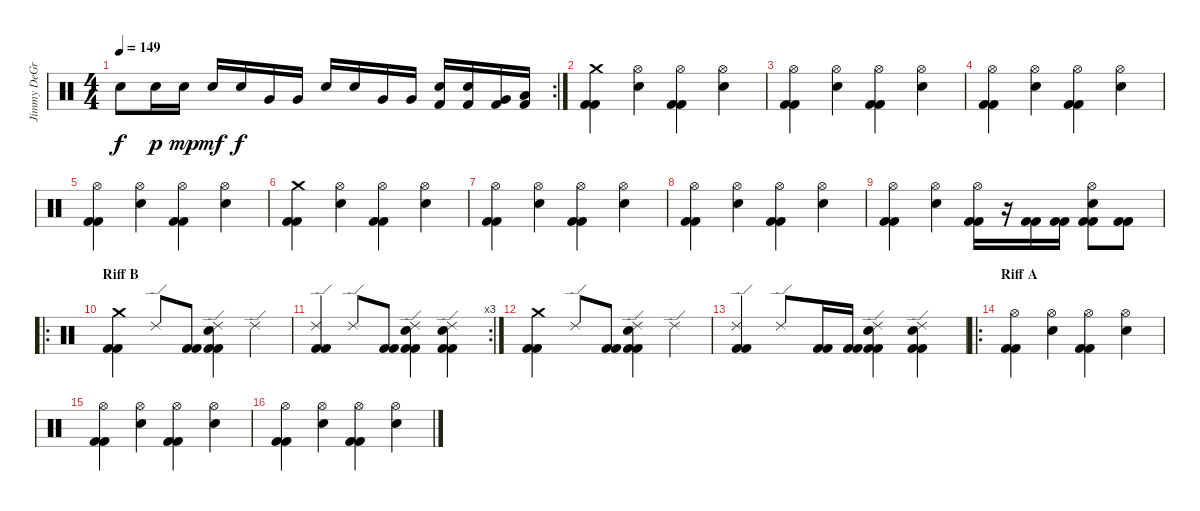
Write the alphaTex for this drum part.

\track ("Jimmy DeGrasso" "Jimmy DeGr") {instrument percussion}
\staff {score}
\articulation defaults
\rc 2
\ts (4 4)
\tempo 149
\clef neutral
\ks c "Snare (hit) 2".8{dy f} "Snare (hit) 2".16{dy p} "Snare (hit) 2".16{dy mp} "Snare (hit) 2".16{dy mf} "Snare (hit) 2".16{dy f} "Very Low Tom (hit)".16 "Very Low Tom (hit)".16 "Snare (hit) 2".16 "Snare (hit) 2".16 "Very Low Tom (hit)".16 "Very Low Tom (hit)".16
("Snare (hit) 2" "Kick (hit) 2").16 ("Snare (hit) 2" "Kick (hit) 2").16 ("Very Low Tom (hit)" "Kick (hit) 2").16 ("Low Floor Tom (hit)" "Kick (hit) 2").16 |
("Crash medium (hit)" "Kick (hit) 2" "Kick (hit) 2").4 ("Hi-Hat (open)" "Snare (hit) 2").4 ("Hi-Hat (open)" "Kick (hit) 2" "Kick (hit) 2").4 ("Hi-Hat (open)" "Snare (hit) 2").4 |
("Hi-Hat (open)" "Kick (hit) 2" "Kick (hit) 2").4 ("Hi-Hat (open)" "Snare (hit) 2").4 ("Hi-Hat (open)" "Kick (hit) 2" "Kick (hit) 2").4 ("Hi-Hat (open)" "Snare (hit) 2").4 |
("Hi-Hat (open)" "Kick (hit) 2" "Kick (hit) 2").4 ("Hi-Hat (open)" "Snare (hit) 2").4 ("Hi-Hat (open)" "Kick (hit) 2" "Kick (hit) 2").4 ("Hi-Hat (open)" "Snare (hit) 2").4 |
("Hi-Hat (open)" "Kick (hit) 2" "Kick (hit) 2").4 ("Hi-Hat (open)" "Snare (hit) 2").4 ("Hi-Hat (open)" "Kick (hit) 2" "Kick (hit) 2").4 ("Hi-Hat (open)" "Snare (hit) 2").4 |
("Crash medium (hit)" "Kick (hit) 2" "Kick (hit) 2").4 ("Hi-Hat (open)" "Snare (hit) 2").4 ("Hi-Hat (open)" "Kick (hit) 2" "Kick (hit) 2").4 ("Hi-Hat (open)" "Snare (hit) 2").4 |
("Hi-Hat (open)" "Kick (hit) 2" "Kick (hit) 2").4 ("Hi-Hat (open)" "Snare (hit) 2").4 ("Hi-Hat (open)" "Kick (hit) 2" "Kick (hit) 2").4 ("Hi-Hat (open)" "Snare (hit) 2").4 |
("Hi-Hat (open)" "Kick (hit) 2" "Kick (hit) 2").4 ("Hi-Hat (open)" "Snare (hit) 2").4 ("Hi-Hat (open)" "Kick (hit) 2" "Kick (hit) 2").4 ("Hi-Hat (open)" "Snare (hit) 2").4 |
("Hi-Hat (open)" "Kick (hit) 2" "Kick (hit) 2").4 ("Hi-Hat (open)" "Snare (hit) 2").4 ("Hi-Hat (open)" "Kick (hit) 2" "Kick (hit) 2").16 r.16 ("Kick (hit) 2" "Kick (hit) 2").16 ("Kick (hit) 2" "Kick (hit) 2").16 ("Hi-Hat (open)" "Snare (hit) 2" "Kick (hit) 2" "Kick (hit) 2").8 ("Kick (hit) 2" "Kick (hit) 2").8 |
\ro
\section ("" "Riff B")
("Crash medium (hit)" "Kick (hit) 2" "Kick (hit) 2").4 "Ride (edge) 2".8 ("Kick (hit) 2" "Kick (hit) 2").8 ("Ride (edge) 2" "Snare (hit) 2" "Kick (hit) 2" "Kick (hit) 2").4 "Ride (edge) 2".4 |
\rc 3
("Ride (edge) 2" "Kick (hit) 2" "Kick (hit) 2").4 "Ride (edge) 2".8 ("Kick (hit) 2" "Kick (hit) 2").8 ("Ride (edge) 2" "Snare (hit) 2" "Kick (hit) 2" "Kick (hit) 2").4 ("Ride (edge) 2" "Snare (hit) 2" "Kick (hit) 2" "Kick (hit) 2").4 |
("Crash medium (hit)" "Kick (hit) 2" "Kick (hit) 2").4 "Ride (edge) 2".8 ("Kick (hit) 2" "Kick (hit) 2").8 ("Ride (edge) 2" "Snare (hit) 2" "Kick (hit) 2" "Kick (hit) 2").4 "Ride (edge) 2".4 |
("Ride (edge) 2" "Kick (hit) 2" "Kick (hit) 2").4 "Ride (edge) 2".8 ("Kick (hit) 2" "Kick (hit) 2").16 ("Kick (hit) 2" "Kick (hit) 2").16 ("Ride (edge) 2" "Snare (hit) 2" "Kick (hit) 2" "Kick (hit) 2").4 ("Ride (edge) 2" "Snare (hit) 2" "Kick (hit) 2" "Kick (hit) 2").4 |
\ro
\section ("" "Riff A")
("Hi-Hat (open)" "Kick (hit) 2" "Kick (hit) 2").4 ("Hi-Hat (open)" "Snare (hit) 2").4 ("Hi-Hat (open)" "Kick (hit) 2" "Kick (hit) 2").4 ("Hi-Hat (open)" "Snare (hit) 2").4 |
("Hi-Hat (open)" "Kick (hit) 2" "Kick (hit) 2").4 ("Hi-Hat (open)" "Snare (hit) 2").4 ("Hi-Hat (open)" "Kick (hit) 2" "Kick (hit) 2").4 ("Hi-Hat (open)" "Snare (hit) 2").4 |
("Hi-Hat (open)" "Kick (hit) 2" "Kick (hit) 2").4 ("Hi-Hat (open)" "Snare (hit) 2").4 ("Hi-Hat (open)" "Kick (hit) 2" "Kick (hit) 2").4 ("Hi-Hat (open)" "Snare (hit) 2").4
